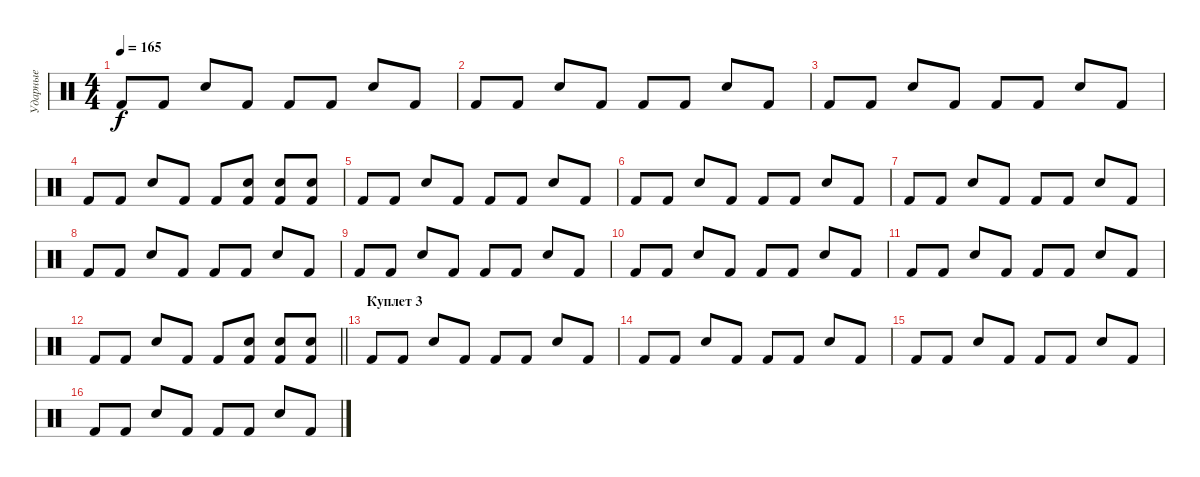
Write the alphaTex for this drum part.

\track ("Ударные" "Ударные") {instrument percussion}
\staff {score}
\articulation defaults
\ts (4 4)
\tempo 165
\clef neutral
\ks c "Kick (hit) 2".8{dy f} "Kick (hit) 2".8 "Snare (hit) 2".8 "Kick (hit) 2".8 "Kick (hit) 2".8 "Kick (hit) 2".8 "Snare (hit) 2".8 "Kick (hit) 2".8
|
"Kick (hit) 2".8 "Kick (hit) 2".8 "Snare (hit) 2".8 "Kick (hit) 2".8 "Kick (hit) 2".8 "Kick (hit) 2".8 "Snare (hit) 2".8 "Kick (hit) 2".8 |
"Kick (hit) 2".8 "Kick (hit) 2".8 "Snare (hit) 2".8 "Kick (hit) 2".8 "Kick (hit) 2".8 "Kick (hit) 2".8 "Snare (hit) 2".8 "Kick (hit) 2".8 |
"Kick (hit) 2".8 "Kick (hit) 2".8 "Snare (hit) 2".8 "Kick (hit) 2".8 "Kick (hit) 2".8 ("Kick (hit) 2" "Snare (hit) 2").8 ("Kick (hit) 2" "Snare (hit) 2").8 ("Kick (hit) 2" "Snare (hit) 2").8 |
"Kick (hit) 2".8 "Kick (hit) 2".8 "Snare (hit) 2".8 "Kick (hit) 2".8 "Kick (hit) 2".8 "Kick (hit) 2".8 "Snare (hit) 2".8 "Kick (hit) 2".8 |
"Kick (hit) 2".8 "Kick (hit) 2".8 "Snare (hit) 2".8 "Kick (hit) 2".8 "Kick (hit) 2".8 "Kick (hit) 2".8 "Snare (hit) 2".8 "Kick (hit) 2".8 |
"Kick (hit) 2".8 "Kick (hit) 2".8 "Snare (hit) 2".8 "Kick (hit) 2".8 "Kick (hit) 2".8 "Kick (hit) 2".8 "Snare (hit) 2".8 "Kick (hit) 2".8 |
"Kick (hit) 2".8 "Kick (hit) 2".8 "Snare (hit) 2".8 "Kick (hit) 2".8 "Kick (hit) 2".8 "Kick (hit) 2".8 "Snare (hit) 2".8 "Kick (hit) 2".8 |
"Kick (hit) 2".8 "Kick (hit) 2".8 "Snare (hit) 2".8 "Kick (hit) 2".8 "Kick (hit) 2".8 "Kick (hit) 2".8 "Snare (hit) 2".8 "Kick (hit) 2".8 |
"Kick (hit) 2".8 "Kick (hit) 2".8 "Snare (hit) 2".8 "Kick (hit) 2".8 "Kick (hit) 2".8 "Kick (hit) 2".8 "Snare (hit) 2".8 "Kick (hit) 2".8 |
"Kick (hit) 2".8 "Kick (hit) 2".8 "Snare (hit) 2".8 "Kick (hit) 2".8 "Kick (hit) 2".8 "Kick (hit) 2".8 "Snare (hit) 2".8 "Kick (hit) 2".8 |
\barLineRight lightlight "Kick (hit) 2".8 "Kick (hit) 2".8 "Snare (hit) 2".8 "Kick (hit) 2".8 "Kick (hit) 2".8
("Kick (hit) 2" "Snare (hit) 2").8 ("Kick (hit) 2" "Snare (hit) 2").8 ("Kick (hit) 2" "Snare (hit) 2").8 |
\section ("" "Куплет 3")
"Kick (hit) 2".8 "Kick (hit) 2".8 "Snare (hit) 2".8 "Kick (hit) 2".8 "Kick (hit) 2".8 "Kick (hit) 2".8 "Snare (hit) 2".8 "Kick (hit) 2".8 |
"Kick (hit) 2".8 "Kick (hit) 2".8 "Snare (hit) 2".8 "Kick (hit) 2".8 "Kick (hit) 2".8 "Kick (hit) 2".8 "Snare (hit) 2".8 "Kick (hit) 2".8 |
"Kick (hit) 2".8 "Kick (hit) 2".8 "Snare (hit) 2".8 "Kick (hit) 2".8 "Kick (hit) 2".8 "Kick (hit) 2".8 "Snare (hit) 2".8 "Kick (hit) 2".8 |
"Kick (hit) 2".8 "Kick (hit) 2".8 "Snare (hit) 2".8 "Kick (hit) 2".8 "Kick (hit) 2".8 "Kick (hit) 2".8 "Snare (hit) 2".8 "Kick (hit) 2".8
